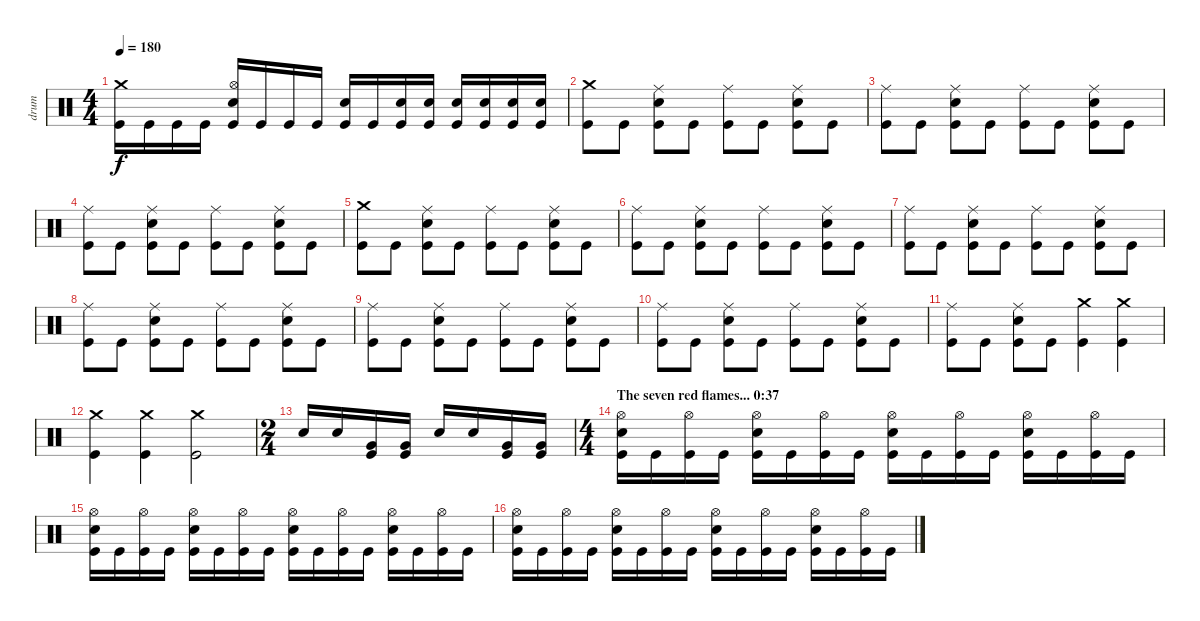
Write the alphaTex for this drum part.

\track ("drum" "drum") {instrument percussion}
\staff {score}
\articulation defaults
\ts (4 4)
\tempo 180
\clef neutral
\ks c
("Crash medium (hit)" "Kick (hit)").16{dy f} "Kick (hit)".16 "Kick (hit)".16 "Kick (hit)".16 ("Hi-Hat (open)" "Snare (hit) 2" "Kick (hit)").16 "Kick (hit)".16 "Kick (hit)".16 "Kick (hit)".16 ("Snare (hit) 2" "Kick (hit)").16 "Kick (hit)".16 ("Snare (hit) 2" "Kick (hit)").16 ("Snare (hit) 2" "Kick (hit)").16 ("Snare (hit) 2" "Kick (hit)").16 ("Snare (hit) 2" "Kick (hit)").16 ("Snare (hit) 2" "Kick (hit)").16 ("Snare (hit) 2" "Kick (hit)").16 |
("Crash medium (hit)" "Kick (hit)").8 "Kick (hit)".8 ("Ride (middle)" "Snare (hit) 2" "Kick (hit)").8 "Kick (hit)".8 ("Ride (middle)" "Kick (hit)").8 "Kick (hit)".8 ("Ride (middle)" "Snare (hit) 2" "Kick (hit)").8 "Kick (hit)".8 |
("Ride (middle)" "Kick (hit)").8 "Kick (hit)".8 ("Ride (middle)" "Snare (hit) 2" "Kick (hit)").8 "Kick (hit)".8 ("Ride (middle)" "Kick (hit)").8 "Kick (hit)".8 ("Ride (middle)" "Snare (hit) 2" "Kick (hit)").8 "Kick (hit)".8 |
("Ride (middle)" "Kick (hit)").8 "Kick (hit)".8 ("Ride (middle)" "Snare (hit) 2" "Kick (hit)").8 "Kick (hit)".8 ("Ride (middle)" "Kick (hit)").8 "Kick (hit)".8 ("Ride (middle)" "Snare (hit) 2" "Kick (hit)").8 "Kick (hit)".8 |
("Crash medium (hit)" "Kick (hit)").8 "Kick (hit)".8 ("Ride (middle)" "Snare (hit) 2" "Kick (hit)").8 "Kick (hit)".8 ("Ride (middle)" "Kick (hit)").8 "Kick (hit)".8 ("Ride (middle)" "Snare (hit) 2" "Kick (hit)").8 "Kick (hit)".8 |
("Ride (middle)" "Kick (hit)").8 "Kick (hit)".8 ("Ride (middle)" "Snare (hit) 2" "Kick (hit)").8 "Kick (hit)".8 ("Ride (middle)" "Kick (hit)").8 "Kick (hit)".8 ("Ride (middle)" "Snare (hit) 2" "Kick (hit)").8 "Kick (hit)".8 |
("Ride (middle)" "Kick (hit)").8 "Kick (hit)".8 ("Ride (middle)" "Snare (hit) 2" "Kick (hit)").8 "Kick (hit)".8 ("Ride (middle)" "Kick (hit)").8 "Kick (hit)".8 ("Ride (middle)" "Snare (hit) 2" "Kick (hit)").8 "Kick (hit)".8 |
("Ride (middle)" "Kick (hit)").8 "Kick (hit)".8 ("Ride (middle)" "Snare (hit) 2" "Kick (hit)").8 "Kick (hit)".8 ("Ride (middle)" "Kick (hit)").8 "Kick (hit)".8 ("Ride (middle)" "Snare (hit) 2" "Kick (hit)").8 "Kick (hit)".8 |
("Ride (middle)" "Kick (hit)").8 "Kick (hit)".8 ("Ride (middle)" "Snare (hit) 2" "Kick (hit)").8 "Kick (hit)".8 ("Ride (middle)" "Kick (hit)").8 "Kick (hit)".8 ("Ride (middle)" "Snare (hit) 2" "Kick (hit)").8 "Kick (hit)".8 |
("Ride (middle)" "Kick (hit)").8 "Kick (hit)".8 ("Ride (middle)" "Snare (hit) 2" "Kick (hit)").8 "Kick (hit)".8 ("Ride (middle)" "Kick (hit)").8 "Kick (hit)".8 ("Ride (middle)" "Snare (hit) 2" "Kick (hit)").8 "Kick (hit)".8 |
("Ride (middle)" "Kick (hit)").8 "Kick (hit)".8 ("Ride (middle)" "Snare (hit) 2" "Kick (hit)").8 "Kick (hit)".8 ("Crash medium (hit)" "Kick (hit)").4 ("Crash medium (hit)" "Kick (hit)").4 |
("Crash medium (hit)" "Kick (hit)").4 ("Crash medium (hit)" "Kick (hit)").4 ("Crash medium (hit)" "Kick (hit)").2 |
\ts (2 4)
"Snare (hit) 2".16 "Snare (hit) 2".16 ("Very Low Tom (hit)" "Kick (hit)").16 ("Very Low Tom (hit)" "Kick (hit)").16 "Snare (hit) 2".16 "Snare (hit) 2".16 ("Very Low Tom (hit)" "Kick (hit)").16 ("Very Low Tom (hit)" "Kick (hit)").16 |
\ts (4 4)
\section ("" "The seven red flames... 0:37")
("Hi-Hat (open)" "Snare (hit) 2" "Kick (hit)").16 "Kick (hit)".16 ("Hi-Hat (open)" "Kick (hit)").16 "Kick (hit)".16 ("Hi-Hat (open)" "Snare (hit) 2" "Kick (hit)").16 "Kick (hit)".16 ("Hi-Hat (open)" "Kick (hit)").16 "Kick (hit)".16 ("Hi-Hat (open)" "Snare (hit) 2" "Kick (hit)").16 "Kick (hit)".16 ("Hi-Hat (open)" "Kick (hit)").16 "Kick (hit)".16 ("Hi-Hat (open)" "Snare (hit) 2" "Kick (hit)").16 "Kick (hit)".16 ("Hi-Hat (open)" "Kick (hit)").16 "Kick (hit)".16 |
("Hi-Hat (open)" "Snare (hit) 2" "Kick (hit)").16 "Kick (hit)".16 ("Hi-Hat (open)" "Kick (hit)").16 "Kick (hit)".16 ("Hi-Hat (open)" "Snare (hit) 2" "Kick (hit)").16 "Kick (hit)".16 ("Hi-Hat (open)" "Kick (hit)").16 "Kick (hit)".16 ("Hi-Hat (open)" "Snare (hit) 2" "Kick (hit)").16 "Kick (hit)".16 ("Hi-Hat (open)" "Kick (hit)").16 "Kick (hit)".16 ("Hi-Hat (open)" "Snare (hit) 2" "Kick (hit)").16 "Kick (hit)".16 ("Hi-Hat (open)" "Kick (hit)").16 "Kick (hit)".16 |
("Hi-Hat (open)" "Snare (hit) 2" "Kick (hit)").16 "Kick (hit)".16 ("Hi-Hat (open)" "Kick (hit)").16 "Kick (hit)".16 ("Hi-Hat (open)" "Snare (hit) 2" "Kick (hit)").16 "Kick (hit)".16 ("Hi-Hat (open)" "Kick (hit)").16 "Kick (hit)".16 ("Hi-Hat (open)" "Snare (hit) 2" "Kick (hit)").16 "Kick (hit)".16 ("Hi-Hat (open)" "Kick (hit)").16 "Kick (hit)".16 ("Hi-Hat (open)" "Snare (hit) 2" "Kick (hit)").16 "Kick (hit)".16 ("Hi-Hat (open)" "Kick (hit)").16 "Kick (hit)".16
